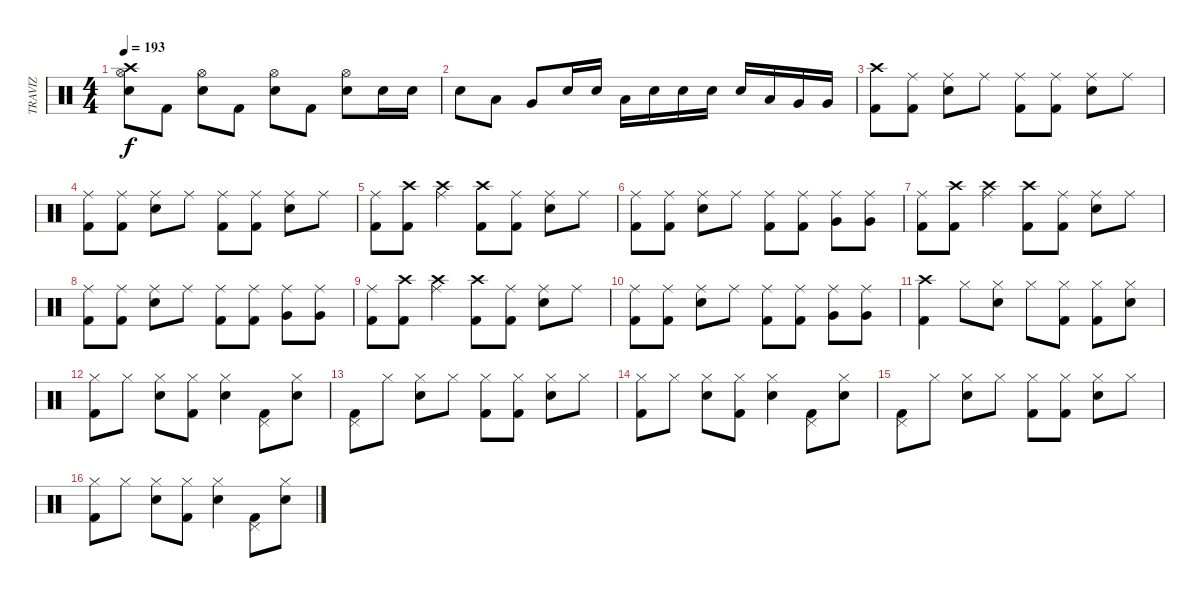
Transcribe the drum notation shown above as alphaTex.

\track ("TRAVIZ" "TRAVIZ") {instrument percussion}
\staff {score}
\articulation defaults
\ts (4 4)
\tempo 193
\clef neutral
\ks c
("Hi-Hat (open)" "Crash high (hit)" "Snare (hit) 2").8{dy f} "Kick (hit) 2".8 ("Hi-Hat (open)" "Snare (hit) 2").8 "Kick (hit) 2".8 ("Hi-Hat (open)" "Snare (hit) 2").8 "Kick (hit) 2".8 ("Hi-Hat (open)" "Snare (hit) 2").8 "Snare (hit) 2".16 "Snare (hit) 2".16 |
"Snare (hit) 2".8 "Low Tom (hit)".8 "Very Low Tom (hit)".8 "Snare (hit) 2".16 "Snare (hit) 2".16 "Low Tom (hit)".16 "Snare (hit) 2".16 "Snare (hit) 2".16 "Snare (hit) 2".16 "Snare (hit) 2".16 "Low Tom (hit)".16 "Very Low Tom (hit)".16 "Very Low Tom (hit)".16 |
("Crash high (hit)" "Kick (hit) 2").8 ("Ride (middle)" "Kick (hit) 2").8 ("Ride (middle)" "Snare (hit) 2").8 "Ride (middle)".8 ("Ride (middle)" "Kick (hit) 2").8 ("Ride (middle)" "Kick (hit) 2").8 ("Ride (middle)" "Snare (hit) 2").8 "Ride (middle)".8 |
("Ride (middle)" "Kick (hit) 2").8 ("Ride (middle)" "Kick (hit) 2").8 ("Ride (middle)" "Snare (hit) 2").8 "Ride (middle)".8 ("Ride (middle)" "Kick (hit) 2").8 ("Ride (middle)" "Kick (hit) 2").8 ("Ride (middle)" "Snare (hit) 2").8 "Ride (middle)".8 |
("Ride (middle)" "Kick (hit) 2").8 ("Crash high (hit)" "Kick (hit) 2").8 ("Crash high (hit)" "Ride (middle)").4 ("Crash high (hit)" "Kick (hit) 2").8 ("Ride (middle)" "Kick (hit) 2").8 ("Ride (middle)" "Snare (hit) 2").8 "Ride (middle)".8 |
("Ride (middle)" "Kick (hit) 2").8 ("Ride (middle)" "Kick (hit) 2").8 ("Ride (middle)" "Snare (hit) 2").8 "Ride (middle)".8 ("Ride (middle)" "Kick (hit) 2").8 ("Ride (middle)" "Kick (hit) 2").8 ("Ride (middle)" "Very Low Tom (hit)").8 ("Ride (middle)" "Very Low Tom (hit)").8 |
("Ride (middle)" "Kick (hit) 2").8 ("Crash high (hit)" "Kick (hit) 2").8 ("Crash high (hit)" "Ride (middle)").4 ("Crash high (hit)" "Kick (hit) 2").8 ("Ride (middle)" "Kick (hit) 2").8 ("Ride (middle)" "Snare (hit) 2").8 "Ride (middle)".8 |
("Ride (middle)" "Kick (hit) 2").8 ("Ride (middle)" "Kick (hit) 2").8 ("Ride (middle)" "Snare (hit) 2").8 "Ride (middle)".8 ("Ride (middle)" "Kick (hit) 2").8 ("Ride (middle)" "Kick (hit) 2").8 ("Ride (middle)" "Very Low Tom (hit)").8 ("Ride (middle)" "Very Low Tom (hit)").8 |
("Ride (middle)" "Kick (hit) 2").8 ("Crash high (hit)" "Kick (hit) 2").8 ("Crash high (hit)" "Ride (middle)").4 ("Crash high (hit)" "Kick (hit) 2").8 ("Ride (middle)" "Kick (hit) 2").8 ("Ride (middle)" "Snare (hit) 2").8 "Ride (middle)".8 |
("Ride (middle)" "Kick (hit) 2").8 ("Ride (middle)" "Kick (hit) 2").8 ("Ride (middle)" "Snare (hit) 2").8 "Ride (middle)".8 ("Ride (middle)" "Kick (hit) 2").8 ("Ride (middle)" "Kick (hit) 2").8 ("Ride (middle)" "Very Low Tom (hit)").8 ("Ride (middle)" "Very Low Tom (hit)").8 |
("Crash high (hit)" "Kick (hit) 2").4 "Hi-Hat (closed)".8 ("Hi-Hat (closed)" "Snare (hit) 2").8 "Hi-Hat (closed)".8 ("Hi-Hat (closed)" "Kick (hit) 2").8 ("Hi-Hat (closed)" "Kick (hit) 2").8 ("Hi-Hat (closed)" "Snare (hit) 2").8 |
("Hi-Hat (closed)" "Kick (hit) 2").8 "Hi-Hat (closed)".8 ("Hi-Hat (closed)" "Snare (hit) 2").8 ("Hi-Hat (closed)" "Kick (hit) 2").8 ("Hi-Hat (closed)" "Snare (hit) 2").4 ("Kick (hit) 2" "Pedal Hi-Hat (hit)").8 ("Hi-Hat (closed)" "Snare (hit) 2").8 |
("Kick (hit) 2" "Pedal Hi-Hat (hit)").8 "Hi-Hat (closed)".8 ("Hi-Hat (closed)" "Snare (hit) 2").8 "Hi-Hat (closed)".8 ("Hi-Hat (closed)" "Kick (hit) 2").8 ("Hi-Hat (closed)" "Kick (hit) 2").8 ("Hi-Hat (closed)" "Snare (hit) 2").8 "Hi-Hat (closed)".8 |
("Hi-Hat (closed)" "Kick (hit) 2").8 "Hi-Hat (closed)".8 ("Hi-Hat (closed)" "Snare (hit) 2").8 ("Hi-Hat (closed)" "Kick (hit) 2").8 ("Hi-Hat (closed)" "Snare (hit) 2").4 ("Kick (hit) 2" "Pedal Hi-Hat (hit)").8 ("Hi-Hat (closed)" "Snare (hit) 2").8 |
("Kick (hit) 2" "Pedal Hi-Hat (hit)").8 "Hi-Hat (closed)".8 ("Hi-Hat (closed)" "Snare (hit) 2").8 "Hi-Hat (closed)".8 ("Hi-Hat (closed)" "Kick (hit) 2").8 ("Hi-Hat (closed)" "Kick (hit) 2").8 ("Hi-Hat (closed)" "Snare (hit) 2").8 "Hi-Hat (closed)".8 |
("Hi-Hat (closed)" "Kick (hit) 2").8 "Hi-Hat (closed)".8 ("Hi-Hat (closed)" "Snare (hit) 2").8 ("Hi-Hat (closed)" "Kick (hit) 2").8 ("Hi-Hat (closed)" "Snare (hit) 2").4 ("Kick (hit) 2" "Pedal Hi-Hat (hit)").8 ("Hi-Hat (closed)" "Snare (hit) 2").8
